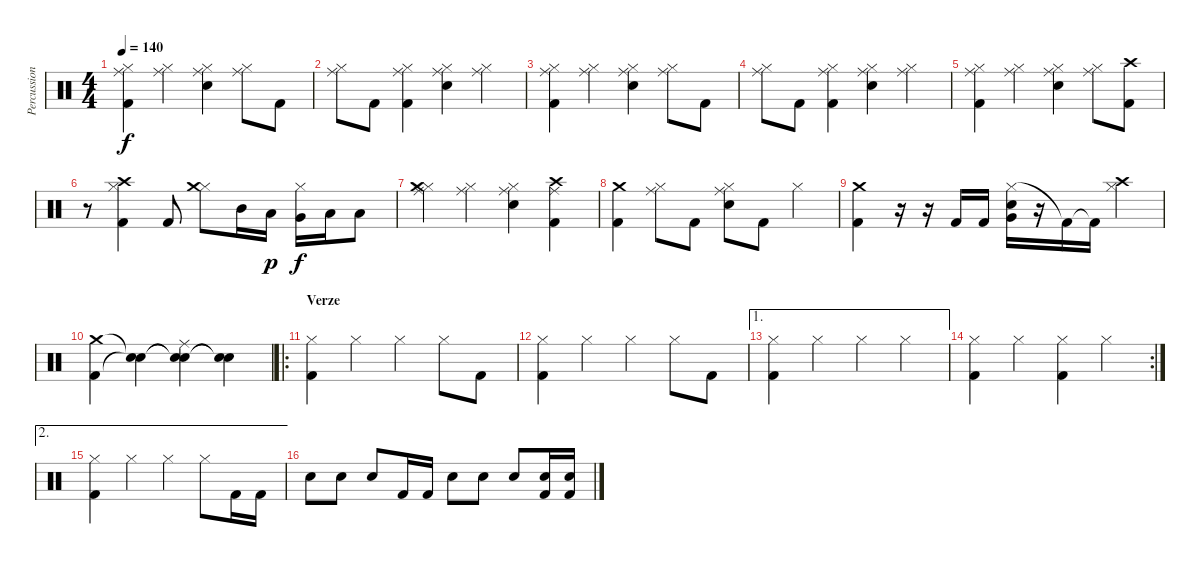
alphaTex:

\track ("Percussion" "Percussion") {instrument percussion}
\staff {score}
\articulation defaults
\ts (4 4)
\tempo 140
\clef neutral
\ks c
("Hi-Hat (closed)" "Kick (hit) 2" "Ride (middle)").4{dy f} ("Hi-Hat (closed)" "Ride (middle)").4 ("Hi-Hat (closed)" "Electric Snare (hit)" "Ride (middle)").4 ("Hi-Hat (closed)" "Ride (middle)").8 "Kick (hit) 2".8 |
("Hi-Hat (closed)" "Ride (middle)").8 "Kick (hit) 2".8 ("Hi-Hat (closed)" "Kick (hit) 2" "Ride (middle)").4 ("Hi-Hat (closed)" "Electric Snare (hit)" "Ride (middle)").4 ("Hi-Hat (closed)" "Ride (middle)").4 |
("Hi-Hat (closed)" "Kick (hit) 2" "Ride (middle)").4 ("Hi-Hat (closed)" "Ride (middle)").4 ("Hi-Hat (closed)" "Electric Snare (hit)" "Ride (middle)").4 ("Hi-Hat (closed)" "Ride (middle)").8 "Kick (hit) 2".8 |
("Hi-Hat (closed)" "Ride (middle)").8 "Kick (hit) 2".8 ("Hi-Hat (closed)" "Kick (hit) 2" "Ride (middle)").4 ("Hi-Hat (closed)" "Electric Snare (hit)" "Ride (middle)").4 ("Hi-Hat (closed)" "Ride (middle)").4 |
("Hi-Hat (closed)" "Kick (hit) 2" "Ride (middle)").4 ("Hi-Hat (closed)" "Ride (middle)").4 ("Hi-Hat (closed)" "Electric Snare (hit)" "Ride (middle)").4 ("Hi-Hat (closed)" "Ride (middle)").8 ("Crash high (hit)" "Kick (hit) 2").8 |
r.8 ("Hi-Hat (closed)" "Crash high (hit)" "Kick (hit) 2").4 "Kick (hit) 2".8 ("Hi-Hat (closed)" "Crash medium (hit)").8 "Mid Tom (hit)".16 "Low Tom (hit)".16{dy p} ("Hi-Hat (closed)" "Very Low Tom (hit)").16{dy f} "Low Floor Tom (hit)".16 "Low Floor Tom (hit)".8 |
("Hi-Hat (closed)" "Crash medium (hit)" "Ride (middle)").4 ("Hi-Hat (closed)" "Ride (middle)").4 ("Hi-Hat (closed)" "Electric Snare (hit)" "Ride (middle)").4 ("Crash high (hit)" "Kick (hit) 2" "Ride (middle)").4 |
("Crash medium (hit)" "Kick (hit) 2").4 ("Hi-Hat (closed)" "Ride (middle)").8 "Kick (hit) 2".8 ("Hi-Hat (closed)" "Electric Snare (hit)" "Ride (middle)").8 "Kick (hit) 2".8 "Hi-Hat (closed)".4 |
("Crash medium (hit)" "Kick (hit) 2").4 r.16 r.16 "Kick (hit) 2".16 "Kick (hit) 2".16 ("Hi-Hat (closed)" "Very Low Tom (hit)" "Electric Snare (hit)").16 r.16 "Kick (hit) 2"{t}.16 "Kick (hit) 2"{t}.16 ("Hi-Hat (closed)" "Crash high (hit)").4 |
("Crash medium (hit)" "Kick (hit) 2").4 ("Snare (hit)"{t} "Snare (hit)"{t}).4 ("Snare (hit)"{t} "Snare (hit)"{t} "Ride (middle)").4 ("Snare (hit)"{t} "Snare (hit)"{t}).4 |
\ro
\section ("" "Verze")
("Hi-Hat (closed)" "Kick (hit) 2").4 "Hi-Hat (closed)".4 "Hi-Hat (closed)".4 "Hi-Hat (closed)".8 "Kick (hit) 2".8 |
("Hi-Hat (closed)" "Kick (hit) 2").4 "Hi-Hat (closed)".4 "Hi-Hat (closed)".4 "Hi-Hat (closed)".8 "Kick (hit) 2".8 |
\ae 1
("Hi-Hat (closed)" "Kick (hit) 2").4 "Hi-Hat (closed)".4 "Hi-Hat (closed)".4 "Hi-Hat (closed)".4 |
\rc 2
("Hi-Hat (closed)" "Kick (hit) 2").4 "Hi-Hat (closed)".4 ("Hi-Hat (closed)" "Kick (hit) 2").4 "Hi-Hat (closed)".4 |
\ae 2
("Hi-Hat (closed)" "Kick (hit) 2").4 "Hi-Hat (closed)".4 "Hi-Hat (closed)".4 "Hi-Hat (closed)".8 "Kick (hit) 2".16 "Kick (hit) 2".16 |
"Electric Snare (hit)".8 "Electric Snare (hit)".8 "Electric Snare (hit)".8 "Kick (hit) 2".16 "Kick (hit) 2".16 "Electric Snare (hit)".8 "Electric Snare (hit)".8 "Electric Snare (hit)".8 ("Kick (hit) 2" "Electric Snare (hit)").16 ("Kick (hit) 2" "Electric Snare (hit)").16
